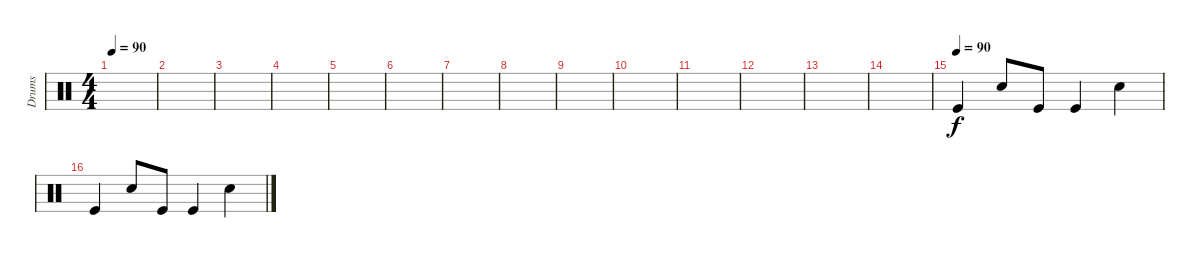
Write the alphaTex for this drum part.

\track ("Drums" "Drums") {instrument percussion}
\staff {score}
\articulation defaults
\ts (4 4)
\tempo 90
\clef neutral
\ks c
|
|
|
|
|
|
|
|
|
|
|
|
|
|
\tempo (90)
"Kick (hit)".4 "Snare (hit) 2".8 "Kick (hit)".8 "Kick (hit)".4 "Snare (hit) 2".4 |
"Kick (hit)".4 "Snare (hit) 2".8 "Kick (hit)".8 "Kick (hit)".4 "Snare (hit) 2".4
